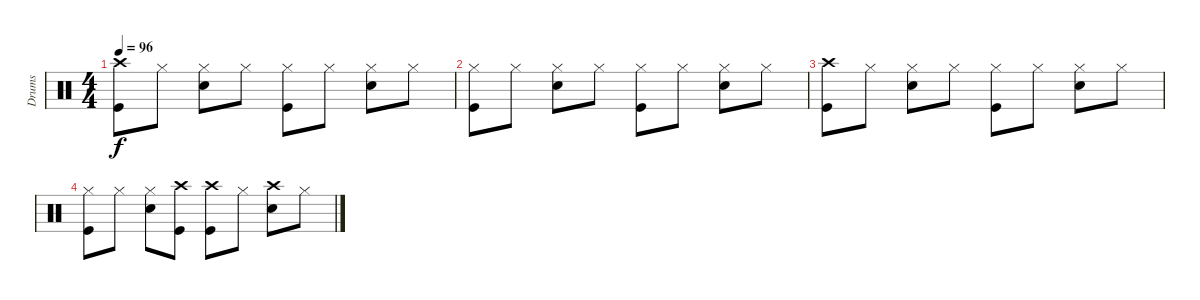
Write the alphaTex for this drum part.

\track ("Drums" "Drums") {instrument percussion}
\staff {score}
\articulation defaults
\ts (4 4)
\tempo 96
\clef neutral
\ks c
("Crash high (hit)" "Kick (hit)").8{dy f} "Hi-Hat (closed)".8 ("Hi-Hat (closed)" "Electric Snare (hit)").8 "Hi-Hat (closed)".8 ("Hi-Hat (closed)" "Kick (hit)").8 "Hi-Hat (closed)".8 ("Hi-Hat (closed)" "Electric Snare (hit)").8 "Hi-Hat (closed)".8 |
("Hi-Hat (closed)" "Kick (hit)").8 "Hi-Hat (closed)".8 ("Hi-Hat (closed)" "Electric Snare (hit)").8 "Hi-Hat (closed)".8 ("Hi-Hat (closed)" "Kick (hit)").8 "Hi-Hat (closed)".8 ("Hi-Hat (closed)" "Electric Snare (hit)").8 "Hi-Hat (closed)".8 |
("Crash high (hit)" "Kick (hit)").8 "Hi-Hat (closed)".8 ("Hi-Hat (closed)" "Electric Snare (hit)").8 "Hi-Hat (closed)".8 ("Hi-Hat (closed)" "Kick (hit)").8 "Hi-Hat (closed)".8 ("Hi-Hat (closed)" "Electric Snare (hit)").8 "Hi-Hat (closed)".8 |
("Hi-Hat (closed)" "Kick (hit)").8 "Hi-Hat (closed)".8 ("Hi-Hat (closed)" "Electric Snare (hit)").8 ("Crash high (hit)" "Kick (hit)").8 ("Crash high (hit)" "Kick (hit)").8 "Hi-Hat (closed)".8 ("Crash high (hit)" "Electric Snare (hit)").8 "Hi-Hat (closed)".8
